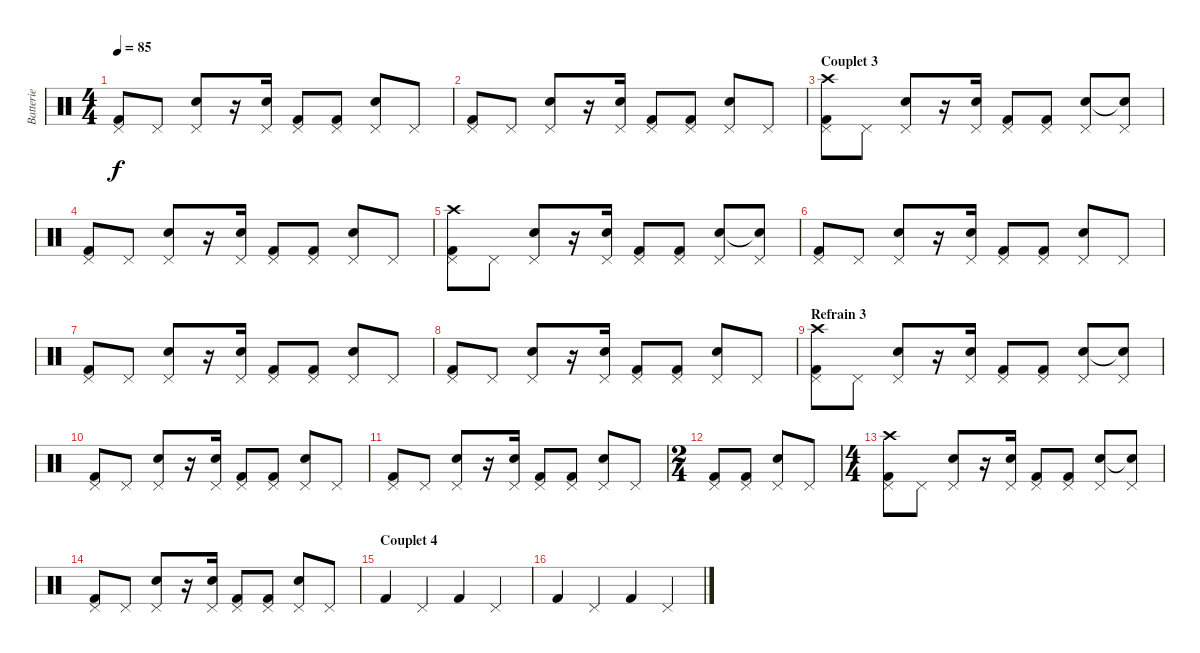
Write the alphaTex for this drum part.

\track ("Batterie" "Batterie") {instrument percussion}
\staff {score}
\articulation defaults
\ts (4 4)
\tempo 85
\clef neutral
\ks c
("Pedal Hi-Hat (hit)" "Kick (hit) 2").8{dy f} "Pedal Hi-Hat (hit)".8 ("Pedal Hi-Hat (hit)" "Electric Snare (hit)").8 r.16 ("Pedal Hi-Hat (hit)" "Electric Snare (hit)").16 ("Pedal Hi-Hat (hit)" "Kick (hit) 2").8 ("Pedal Hi-Hat (hit)" "Kick (hit) 2").8 ("Pedal Hi-Hat (hit)" "Electric Snare (hit)").8 "Pedal Hi-Hat (hit)".8 |
("Pedal Hi-Hat (hit)" "Kick (hit) 2").8 "Pedal Hi-Hat (hit)".8 ("Pedal Hi-Hat (hit)" "Electric Snare (hit)").8 r.16 ("Pedal Hi-Hat (hit)" "Electric Snare (hit)").16 ("Pedal Hi-Hat (hit)" "Kick (hit) 2").8 ("Pedal Hi-Hat (hit)" "Kick (hit) 2").8 ("Pedal Hi-Hat (hit)" "Electric Snare (hit)").8 "Pedal Hi-Hat (hit)".8 |
\section ("" "Couplet 3")
("Pedal Hi-Hat (hit)" "Crash high (hit)" "Kick (hit) 2").8 "Pedal Hi-Hat (hit)".8 ("Pedal Hi-Hat (hit)" "Electric Snare (hit)").8 r.16 ("Pedal Hi-Hat (hit)" "Electric Snare (hit)").16 ("Pedal Hi-Hat (hit)" "Kick (hit) 2").8 ("Pedal Hi-Hat (hit)" "Kick (hit) 2").8 ("Pedal Hi-Hat (hit)" "Electric Snare (hit)").8 ("Pedal Hi-Hat (hit)" "Snare (hit)"{t}).8 |
("Pedal Hi-Hat (hit)" "Kick (hit) 2").8 "Pedal Hi-Hat (hit)".8 ("Pedal Hi-Hat (hit)" "Electric Snare (hit)").8 r.16 ("Pedal Hi-Hat (hit)" "Electric Snare (hit)").16 ("Pedal Hi-Hat (hit)" "Kick (hit) 2").8 ("Pedal Hi-Hat (hit)" "Kick (hit) 2").8 ("Pedal Hi-Hat (hit)" "Electric Snare (hit)").8 "Pedal Hi-Hat (hit)".8 |
("Pedal Hi-Hat (hit)" "Crash high (hit)" "Kick (hit) 2").8 "Pedal Hi-Hat (hit)".8 ("Pedal Hi-Hat (hit)" "Electric Snare (hit)").8 r.16 ("Pedal Hi-Hat (hit)" "Electric Snare (hit)").16 ("Pedal Hi-Hat (hit)" "Kick (hit) 2").8 ("Pedal Hi-Hat (hit)" "Kick (hit) 2").8 ("Pedal Hi-Hat (hit)" "Electric Snare (hit)").8 ("Pedal Hi-Hat (hit)" "Snare (hit)"{t}).8 |
("Pedal Hi-Hat (hit)" "Kick (hit) 2").8 "Pedal Hi-Hat (hit)".8 ("Pedal Hi-Hat (hit)" "Electric Snare (hit)").8 r.16 ("Pedal Hi-Hat (hit)" "Electric Snare (hit)").16 ("Pedal Hi-Hat (hit)" "Kick (hit) 2").8 ("Pedal Hi-Hat (hit)" "Kick (hit) 2").8 ("Pedal Hi-Hat (hit)" "Electric Snare (hit)").8 "Pedal Hi-Hat (hit)".8 |
("Pedal Hi-Hat (hit)" "Kick (hit) 2").8 "Pedal Hi-Hat (hit)".8 ("Pedal Hi-Hat (hit)" "Electric Snare (hit)").8 r.16 ("Pedal Hi-Hat (hit)" "Electric Snare (hit)").16 ("Pedal Hi-Hat (hit)" "Kick (hit) 2").8 ("Pedal Hi-Hat (hit)" "Kick (hit) 2").8 ("Pedal Hi-Hat (hit)" "Electric Snare (hit)").8 "Pedal Hi-Hat (hit)".8 |
("Pedal Hi-Hat (hit)" "Kick (hit) 2").8 "Pedal Hi-Hat (hit)".8 ("Pedal Hi-Hat (hit)" "Electric Snare (hit)").8 r.16 ("Pedal Hi-Hat (hit)" "Electric Snare (hit)").16 ("Pedal Hi-Hat (hit)" "Kick (hit) 2").8 ("Pedal Hi-Hat (hit)" "Kick (hit) 2").8 ("Pedal Hi-Hat (hit)" "Electric Snare (hit)").8 "Pedal Hi-Hat (hit)".8 |
\section ("" "Refrain 3")
("Pedal Hi-Hat (hit)" "Crash high (hit)" "Kick (hit) 2").8 "Pedal Hi-Hat (hit)".8 ("Pedal Hi-Hat (hit)" "Electric Snare (hit)").8 r.16 ("Pedal Hi-Hat (hit)" "Electric Snare (hit)").16 ("Pedal Hi-Hat (hit)" "Kick (hit) 2").8 ("Pedal Hi-Hat (hit)" "Kick (hit) 2").8 ("Pedal Hi-Hat (hit)" "Electric Snare (hit)").8 ("Pedal Hi-Hat (hit)" "Snare (hit)"{t}).8 |
("Pedal Hi-Hat (hit)" "Kick (hit) 2").8 "Pedal Hi-Hat (hit)".8 ("Pedal Hi-Hat (hit)" "Electric Snare (hit)").8 r.16 ("Pedal Hi-Hat (hit)" "Electric Snare (hit)").16 ("Pedal Hi-Hat (hit)" "Kick (hit) 2").8 ("Pedal Hi-Hat (hit)" "Kick (hit) 2").8 ("Pedal Hi-Hat (hit)" "Electric Snare (hit)").8 "Pedal Hi-Hat (hit)".8 |
("Pedal Hi-Hat (hit)" "Kick (hit) 2").8 "Pedal Hi-Hat (hit)".8 ("Pedal Hi-Hat (hit)" "Electric Snare (hit)").8 r.16 ("Pedal Hi-Hat (hit)" "Electric Snare (hit)").16 ("Pedal Hi-Hat (hit)" "Kick (hit) 2").8 ("Pedal Hi-Hat (hit)" "Kick (hit) 2").8 ("Pedal Hi-Hat (hit)" "Electric Snare (hit)").8 "Pedal Hi-Hat (hit)".8 |
\ts (2 4)
("Pedal Hi-Hat (hit)" "Kick (hit) 2").8 ("Pedal Hi-Hat (hit)" "Kick (hit) 2").8 ("Pedal Hi-Hat (hit)" "Electric Snare (hit)").8 "Pedal Hi-Hat (hit)".8 |
\ts (4 4)
("Pedal Hi-Hat (hit)" "Crash high (hit)" "Kick (hit) 2").8 "Pedal Hi-Hat (hit)".8 ("Pedal Hi-Hat (hit)" "Electric Snare (hit)").8 r.16 ("Pedal Hi-Hat (hit)" "Electric Snare (hit)").16 ("Pedal Hi-Hat (hit)" "Kick (hit) 2").8 ("Pedal Hi-Hat (hit)" "Kick (hit) 2").8 ("Pedal Hi-Hat (hit)" "Electric Snare (hit)").8 ("Pedal Hi-Hat (hit)" "Snare (hit)"{t}).8 |
("Pedal Hi-Hat (hit)" "Kick (hit) 2").8 "Pedal Hi-Hat (hit)".8 ("Pedal Hi-Hat (hit)" "Electric Snare (hit)").8 r.16 ("Pedal Hi-Hat (hit)" "Electric Snare (hit)").16 ("Pedal Hi-Hat (hit)" "Kick (hit) 2").8 ("Pedal Hi-Hat (hit)" "Kick (hit) 2").8 ("Pedal Hi-Hat (hit)" "Electric Snare (hit)").8 "Pedal Hi-Hat (hit)".8 |
\section ("" "Couplet 4")
"Kick (hit) 2".4 "Pedal Hi-Hat (hit)".4 "Kick (hit) 2".4 "Pedal Hi-Hat (hit)".4 |
"Kick (hit) 2".4 "Pedal Hi-Hat (hit)".4 "Kick (hit) 2".4 "Pedal Hi-Hat (hit)".4
